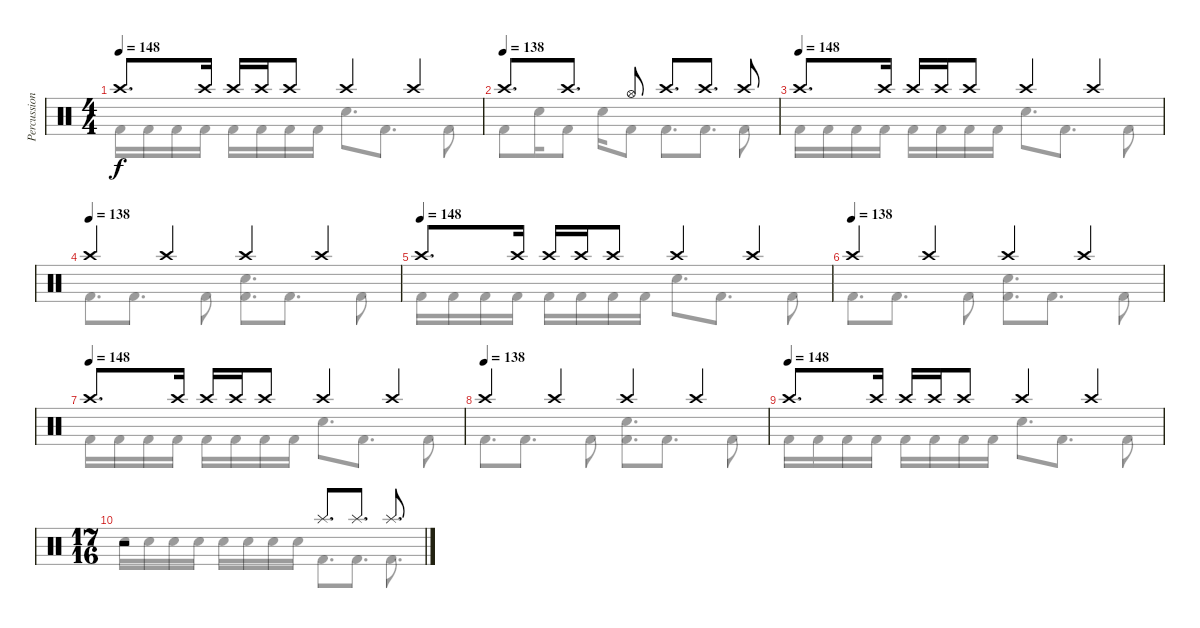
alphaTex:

\track ("Percussion" "Percussion") {instrument percussion}
\staff {score}
\articulation defaults
\voice
\ts (4 4)
\tempo 148
\clef neutral
\ks c "Crash high (hit)".8{d dy f} "Crash high (hit)".16 "Crash high (hit)".16 "Crash high (hit)".16 "Crash high (hit)".8 "Crash high (hit)".4 "Crash high (hit)".4
|
\tempo (138)
"Crash high (hit)".8{d} "Crash high (hit)".8{d} "Hi-Hat (open)".8 "Crash high (hit)".8{d} "Crash high (hit)".8{d} "Crash high (hit)".8 |
\tempo (148)
"Crash high (hit)".8{d} "Crash high (hit)".16 "Crash high (hit)".16 "Crash high (hit)".16 "Crash high (hit)".8 "Crash high (hit)".4 "Crash high (hit)".4 |
\tempo (138)
"Crash high (hit)".4 "Crash high (hit)".4 "Crash high (hit)".4 "Crash high (hit)".4 |
\tempo (148)
"Crash high (hit)".8{d} "Crash high (hit)".16 "Crash high (hit)".16 "Crash high (hit)".16 "Crash high (hit)".8 "Crash high (hit)".4 "Crash high (hit)".4 |
\tempo (138)
"Crash high (hit)".4 "Crash high (hit)".4 "Crash high (hit)".4 "Crash high (hit)".4 |
\tempo (148)
"Crash high (hit)".8{d} "Crash high (hit)".16 "Crash high (hit)".16 "Crash high (hit)".16 "Crash high (hit)".8 "Crash high (hit)".4 "Crash high (hit)".4 |
\tempo (138)
"Crash high (hit)".4 "Crash high (hit)".4 "Crash high (hit)".4 "Crash high (hit)".4 |
\tempo (148)
"Crash high (hit)".8{d} "Crash high (hit)".16 "Crash high (hit)".16 "Crash high (hit)".16 "Crash high (hit)".8 "Crash high (hit)".4 "Crash high (hit)".4 |
\ts (17 16)
r.2 "Splash (hit)".8{d} "Splash (hit)".8{d} "Splash (hit)".8{d}
\voice
\clef neutral
\ottava regular
\simile none
\ks c "Kick (hit) 2".16{dy f} "Kick (hit) 2".16 "Kick (hit) 2".16 "Kick (hit) 2".16 "Kick (hit) 2".16 "Kick (hit) 2".16 "Kick (hit) 2".16 "Kick (hit) 2".16 "Electric Snare (hit)".8{d} "Kick (hit) 2".8{d} "Kick (hit) 2".8
|
"Kick (hit) 2".8 "Electric Snare (hit)".16 "Kick (hit) 2".8 "Electric Snare (hit)".16 "Kick (hit) 2".8 "Kick (hit) 2".8{d} "Kick (hit) 2".8{d} "Kick (hit) 2".8 |
"Kick (hit) 2".16 "Kick (hit) 2".16 "Kick (hit) 2".16 "Kick (hit) 2".16 "Kick (hit) 2".16 "Kick (hit) 2".16 "Kick (hit) 2".16 "Kick (hit) 2".16 "Electric Snare (hit)".8{d} "Kick (hit) 2".8{d} "Kick (hit) 2".8 |
"Kick (hit) 2".8{d} "Kick (hit) 2".8{d} "Kick (hit) 2".8 ("Electric Snare (hit)" "Kick (hit) 2").8{d} "Kick (hit) 2".8{d} "Kick (hit) 2".8 |
"Kick (hit) 2".16 "Kick (hit) 2".16 "Kick (hit) 2".16 "Kick (hit) 2".16 "Kick (hit) 2".16 "Kick (hit) 2".16 "Kick (hit) 2".16 "Kick (hit) 2".16 "Electric Snare (hit)".8{d} "Kick (hit) 2".8{d} "Kick (hit) 2".8 |
"Kick (hit) 2".8{d} "Kick (hit) 2".8{d} "Kick (hit) 2".8 ("Electric Snare (hit)" "Kick (hit) 2").8{d} "Kick (hit) 2".8{d} "Kick (hit) 2".8 |
"Kick (hit) 2".16 "Kick (hit) 2".16 "Kick (hit) 2".16 "Kick (hit) 2".16 "Kick (hit) 2".16 "Kick (hit) 2".16 "Kick (hit) 2".16 "Kick (hit) 2".16 "Electric Snare (hit)".8{d} "Kick (hit) 2".8{d} "Kick (hit) 2".8 |
"Kick (hit) 2".8{d} "Kick (hit) 2".8{d} "Kick (hit) 2".8 ("Electric Snare (hit)" "Kick (hit) 2").8{d} "Kick (hit) 2".8{d} "Kick (hit) 2".8 |
"Kick (hit) 2".16 "Kick (hit) 2".16 "Kick (hit) 2".16 "Kick (hit) 2".16 "Kick (hit) 2".16 "Kick (hit) 2".16 "Kick (hit) 2".16 "Kick (hit) 2".16 "Electric Snare (hit)".8{d} "Kick (hit) 2".8{d} "Kick (hit) 2".8 |
"Electric Snare (hit)".16 "Electric Snare (hit)".16 "Electric Snare (hit)".16 "Electric Snare (hit)".16 "Electric Snare (hit)".16 "Electric Snare (hit)".16 "Electric Snare (hit)".16 "Electric Snare (hit)".16 "Kick (hit) 2".8{d} "Kick (hit) 2".8{d} "Kick (hit) 2".8{d}
